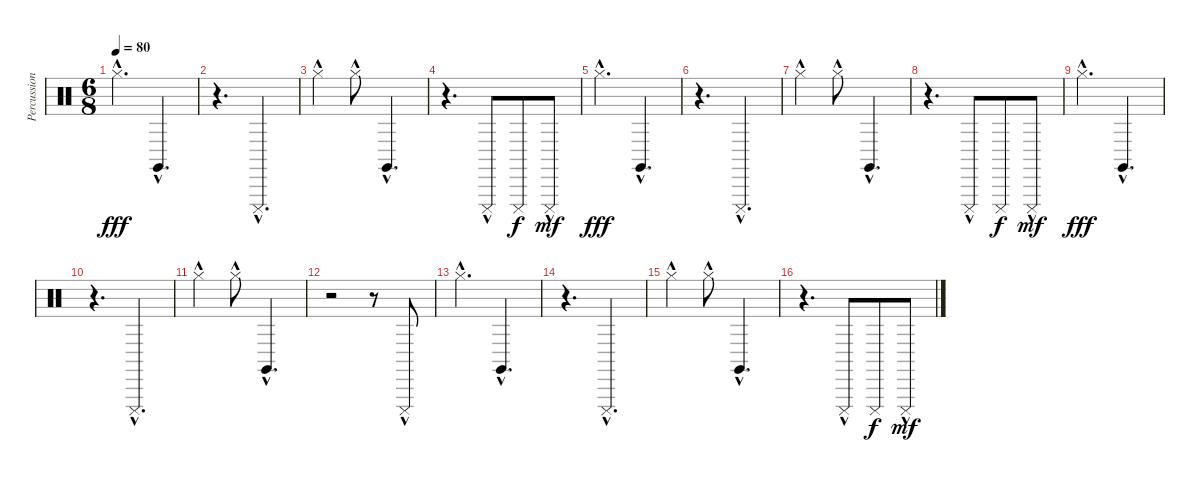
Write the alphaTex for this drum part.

\track ("Percussion" "Percussion") {instrument percussion}
\staff {score}
\articulation defaults
\ts (6 8)
\tempo 80
\clef neutral
\ks c "Hi-Hat (closed)"{hac}.4{d dy fff} "Claves (hit)"{hac}.4{d}
|
r.4{d} "Cuica (mute)"{hac}.4{d} |
"Hi-Hat (closed)"{hac}.4 "Hi-Hat (closed)"{hac}.8 "Claves (hit)"{hac}.4{d} |
r.4{d} "Cuica (mute)"{hac}.8 "Cuica (mute)".8{dy f} "Cuica (mute)"{hac}.8{dy mf} |
"Hi-Hat (closed)"{hac}.4{d dy fff} "Claves (hit)"{hac}.4{d} |
r.4{d} "Cuica (mute)"{hac}.4{d} |
"Hi-Hat (closed)"{hac}.4 "Hi-Hat (closed)"{hac}.8 "Claves (hit)"{hac}.4{d} |
r.4{d} "Cuica (mute)"{hac}.8 "Cuica (mute)".8{dy f} "Cuica (mute)"{hac}.8{dy mf} |
"Hi-Hat (closed)"{hac}.4{d dy fff} "Claves (hit)"{hac}.4{d} |
r.4{d} "Cuica (mute)"{hac}.4{d} |
"Hi-Hat (closed)"{hac}.4 "Hi-Hat (closed)"{hac}.8 "Claves (hit)"{hac}.4{d} |
r.2 r.8 "Cuica (mute)"{hac}.8 |
"Hi-Hat (closed)"{hac}.4{d} "Claves (hit)"{hac}.4{d} |
r.4{d} "Cuica (mute)"{hac}.4{d} |
"Hi-Hat (closed)"{hac}.4 "Hi-Hat (closed)"{hac}.8 "Claves (hit)"{hac}.4{d} |
r.4{d} "Cuica (mute)"{hac}.8 "Cuica (mute)".8{dy f} "Cuica (mute)"{hac}.8{dy mf}
